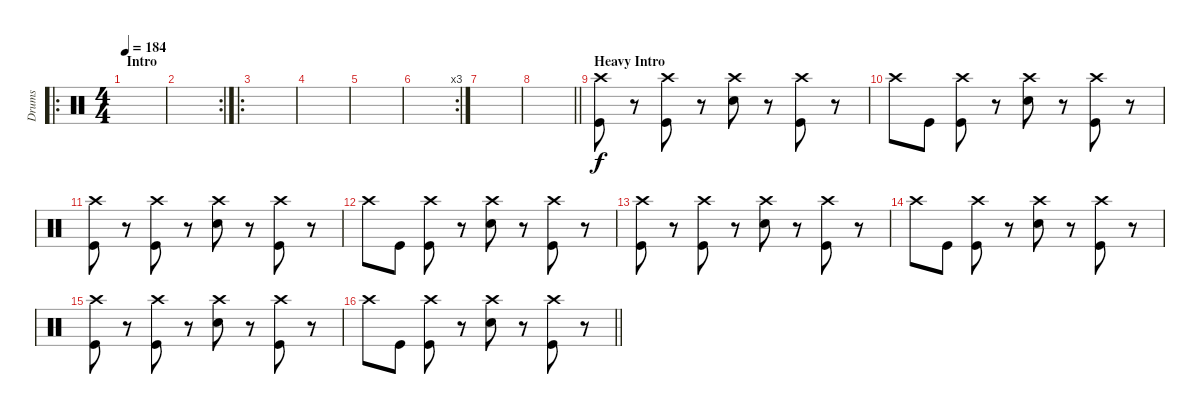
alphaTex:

\track ("Drums" "Drums") {instrument percussion}
\staff {score}
\articulation defaults
\ro
\ts (4 4)
\section ("" "Intro")
\tempo 184
\clef neutral
\ks c
|
\rc 2
|
\ro
|
|
|
\rc 3
|
|
\barLineRight lightlight
|
\section ("" "Heavy Intro")
("Crash high (hit)" "Kick (hit)").8 r.8 ("Crash high (hit)" "Kick (hit)").8 r.8 ("Crash high (hit)" "Electric Snare (hit)").8 r.8 ("Crash high (hit)" "Kick (hit)").8 r.8 |
"Crash high (hit)".8 "Kick (hit)".8 ("Crash high (hit)" "Kick (hit)").8 r.8 ("Crash high (hit)" "Electric Snare (hit)").8 r.8 ("Crash high (hit)" "Kick (hit)").8 r.8 |
("Crash high (hit)" "Kick (hit)").8 r.8 ("Crash high (hit)" "Kick (hit)").8 r.8 ("Crash high (hit)" "Electric Snare (hit)").8 r.8 ("Crash high (hit)" "Kick (hit)").8 r.8 |
"Crash high (hit)".8 "Kick (hit)".8 ("Crash high (hit)" "Kick (hit)").8 r.8 ("Crash high (hit)" "Electric Snare (hit)").8 r.8 ("Crash high (hit)" "Kick (hit)").8 r.8 |
("Crash high (hit)" "Kick (hit)").8 r.8 ("Crash high (hit)" "Kick (hit)").8 r.8 ("Crash high (hit)" "Electric Snare (hit)").8 r.8 ("Crash high (hit)" "Kick (hit)").8 r.8 |
"Crash high (hit)".8 "Kick (hit)".8 ("Crash high (hit)" "Kick (hit)").8 r.8 ("Crash high (hit)" "Electric Snare (hit)").8 r.8 ("Crash high (hit)" "Kick (hit)").8 r.8 |
("Crash high (hit)" "Kick (hit)").8 r.8 ("Crash high (hit)" "Kick (hit)").8 r.8 ("Crash high (hit)" "Electric Snare (hit)").8 r.8 ("Crash high (hit)" "Kick (hit)").8 r.8 |
\barLineRight lightlight "Crash high (hit)".8 "Kick (hit)".8
("Crash high (hit)" "Kick (hit)").8 r.8 ("Crash high (hit)" "Electric Snare (hit)").8 r.8 ("Crash high (hit)" "Kick (hit)").8 r.8
